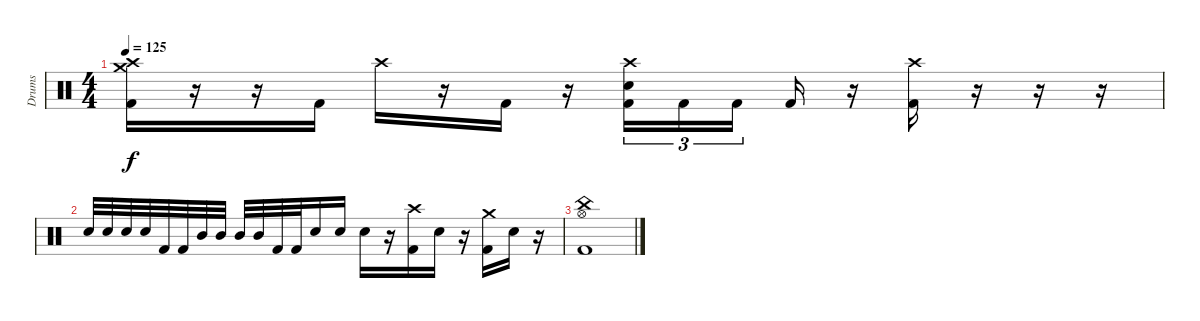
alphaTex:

\track ("Drums" "Drums") {instrument percussion}
\staff {score}
\articulation defaults
\ts (4 4)
\tempo 125
\clef neutral
\ks c
("Crash high (hit)" "Crash medium (hit)" "Kick (hit) 2").16{dy f} r.16 r.16 "Kick (hit) 2".16 "Crash high (hit)".16 r.16 "Kick (hit) 2".16 r.16 ("Crash high (hit)" "Electric Snare (hit)" "Kick (hit) 2").16{tu (3 2)} "Kick (hit) 2".16{tu (3 2)} "Kick (hit) 2".16{tu (3 2) beam splitsecondary} "Kick (hit) 2".16 r.16 ("Crash high (hit)" "Kick (hit) 2").16 r.16 r.16 r.16 |
"Electric Snare (hit)".32 "Electric Snare (hit)".32 "Electric Snare (hit)".32 "Electric Snare (hit)".32 "Kick (hit) 2".32 "Kick (hit) 2".32 "Mid Tom (hit)".32 "Mid Tom (hit)".32 "Mid Tom (hit)".32 "Mid Tom (hit)".32 "Kick (hit) 2".32 "Kick (hit) 2".32 "Electric Snare (hit)".16 "Electric Snare (hit)".16 "Electric Snare (hit)".16 r.16 ("Crash high (hit)" "Kick (hit) 2").16 "Electric Snare (hit)".16 r.16 ("Crash medium (hit)" "Kick (hit) 2").16 "Electric Snare (hit)".16 r.16 |
("China (hit)" "Hi-Hat (open)" "Kick (hit) 2").1
